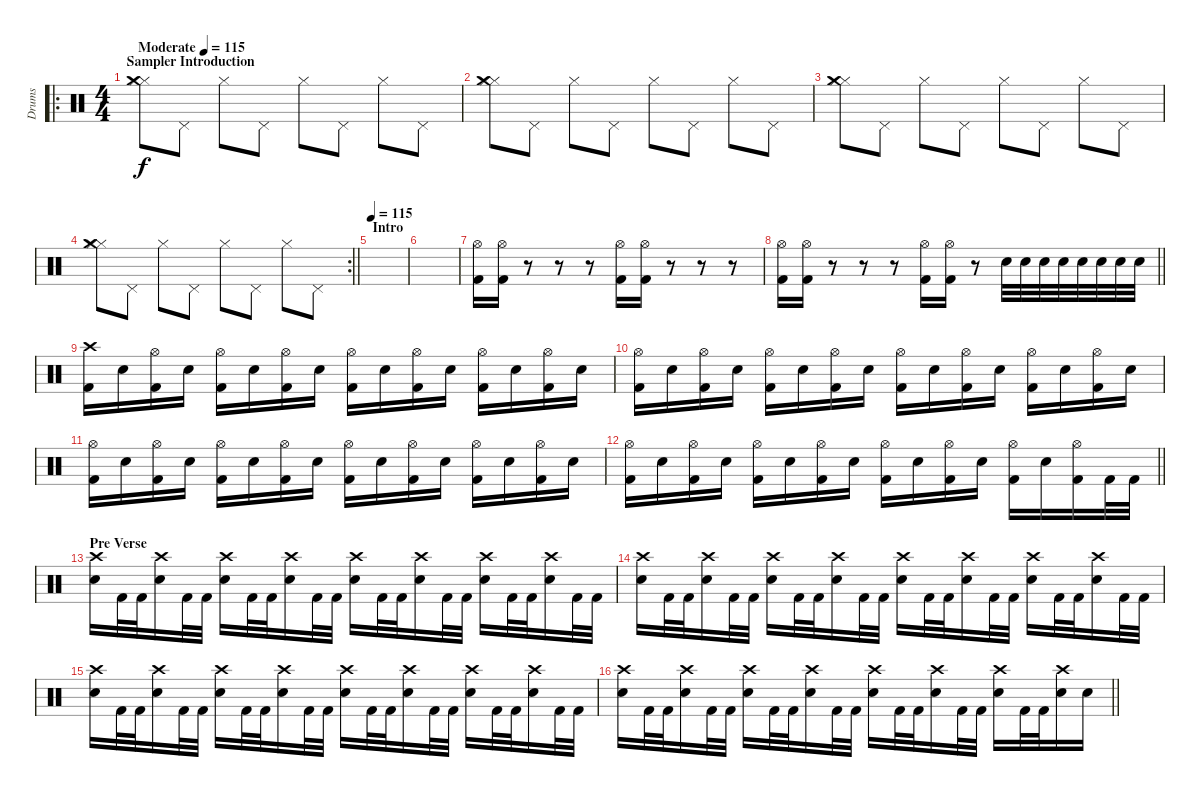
\track ("Drums" "Drums") {instrument percussion}
\staff {score}
\articulation defaults
\ro
\ts (4 4)
\section ("" "Sampler Introduction")
\tempo (115 "Moderate")
\tempo 102
\tempo (115 "Moderate")
\clef neutral
\ks c
("Hi-Hat (closed)" "Crash medium (hit)" "Hi-Hat (closed)").8{dy f} "Pedal Hi-Hat (hit)".8 "Hi-Hat (closed)".8 "Pedal Hi-Hat (hit)".8 "Hi-Hat (closed)".8 "Pedal Hi-Hat (hit)".8 "Hi-Hat (closed)".8 "Pedal Hi-Hat (hit)".8 |
("Hi-Hat (closed)" "Crash medium (hit)" "Hi-Hat (closed)").8 "Pedal Hi-Hat (hit)".8 "Hi-Hat (closed)".8 "Pedal Hi-Hat (hit)".8 "Hi-Hat (closed)".8 "Pedal Hi-Hat (hit)".8 "Hi-Hat (closed)".8 "Pedal Hi-Hat (hit)".8 |
("Hi-Hat (closed)" "Crash medium (hit)" "Hi-Hat (closed)").8 "Pedal Hi-Hat (hit)".8 "Hi-Hat (closed)".8 "Pedal Hi-Hat (hit)".8 "Hi-Hat (closed)".8 "Pedal Hi-Hat (hit)".8 "Hi-Hat (closed)".8 "Pedal Hi-Hat (hit)".8 |
\rc 2
\barLineRight lightlight
("Hi-Hat (closed)" "Crash medium (hit)" "Hi-Hat (closed)").8 "Pedal Hi-Hat (hit)".8 "Hi-Hat (closed)".8 "Pedal Hi-Hat (hit)".8 "Hi-Hat (closed)".8 "Pedal Hi-Hat (hit)".8 "Hi-Hat (closed)".8 "Pedal Hi-Hat (hit)".8 |
\section ("" "Intro")
\tempo 115
|
|
("Hi-Hat (open)" "Kick (hit) 2").16 ("Hi-Hat (open)" "Kick (hit) 2").16 r.8 r.8 r.8 ("Hi-Hat (open)" "Kick (hit) 2").16 ("Hi-Hat (open)" "Kick (hit) 2").16 r.8 r.8 r.8 |
\barLineRight lightlight
("Hi-Hat (open)" "Kick (hit) 2").16 ("Hi-Hat (open)" "Kick (hit) 2").16 r.8 r.8 r.8 ("Hi-Hat (open)" "Kick (hit) 2").16 ("Hi-Hat (open)" "Kick (hit) 2").16 r.8 "Electric Snare (hit)".32 "Electric Snare (hit)".32 "Electric Snare (hit)".32 "Electric Snare (hit)".32 "Electric Snare (hit)".32 "Electric Snare (hit)".32 "Electric Snare (hit)".32 "Electric Snare (hit)".32 |
\section ("" "")
("Crash high (hit)" "Kick (hit) 2").16 "Electric Snare (hit)".16 ("Hi-Hat (open)" "Kick (hit) 2").16 "Electric Snare (hit)".16 ("Hi-Hat (open)" "Kick (hit) 2").16 "Electric Snare (hit)".16 ("Hi-Hat (open)" "Kick (hit) 2").16 "Electric Snare (hit)".16 ("Hi-Hat (open)" "Kick (hit) 2").16 "Electric Snare (hit)".16 ("Hi-Hat (open)" "Kick (hit) 2").16 "Electric Snare (hit)".16 ("Hi-Hat (open)" "Kick (hit) 2").16 "Electric Snare (hit)".16 ("Hi-Hat (open)" "Kick (hit) 2").16 "Electric Snare (hit)".16 |
("Hi-Hat (open)" "Kick (hit) 2").16 "Electric Snare (hit)".16 ("Hi-Hat (open)" "Kick (hit) 2").16 "Electric Snare (hit)".16 ("Hi-Hat (open)" "Kick (hit) 2").16 "Electric Snare (hit)".16 ("Hi-Hat (open)" "Kick (hit) 2").16 "Electric Snare (hit)".16 ("Hi-Hat (open)" "Kick (hit) 2").16 "Electric Snare (hit)".16 ("Hi-Hat (open)" "Kick (hit) 2").16 "Electric Snare (hit)".16 ("Hi-Hat (open)" "Kick (hit) 2").16 "Electric Snare (hit)".16 ("Hi-Hat (open)" "Kick (hit) 2").16 "Electric Snare (hit)".16 |
("Hi-Hat (open)" "Kick (hit) 2").16 "Electric Snare (hit)".16 ("Hi-Hat (open)" "Kick (hit) 2").16 "Electric Snare (hit)".16 ("Hi-Hat (open)" "Kick (hit) 2").16 "Electric Snare (hit)".16 ("Hi-Hat (open)" "Kick (hit) 2").16 "Electric Snare (hit)".16 ("Hi-Hat (open)" "Kick (hit) 2").16 "Electric Snare (hit)".16 ("Hi-Hat (open)" "Kick (hit) 2").16 "Electric Snare (hit)".16 ("Hi-Hat (open)" "Kick (hit) 2").16 "Electric Snare (hit)".16 ("Hi-Hat (open)" "Kick (hit) 2").16 "Electric Snare (hit)".16 |
\barLineRight lightlight
("Hi-Hat (open)" "Kick (hit) 2").16 "Electric Snare (hit)".16 ("Hi-Hat (open)" "Kick (hit) 2").16 "Electric Snare (hit)".16 ("Hi-Hat (open)" "Kick (hit) 2").16 "Electric Snare (hit)".16 ("Hi-Hat (open)" "Kick (hit) 2").16 "Electric Snare (hit)".16 ("Hi-Hat (open)" "Kick (hit) 2").16 "Electric Snare (hit)".16 ("Hi-Hat (open)" "Kick (hit) 2").16 "Electric Snare (hit)".16 ("Hi-Hat (open)" "Kick (hit) 2").16 "Electric Snare (hit)".16 ("Hi-Hat (open)" "Kick (hit) 2").16 "Kick (hit) 2".32 "Kick (hit) 2".32 |
\section ("" "Pre Verse")
("Crash high (hit)" "Electric Snare (hit)").16 "Kick (hit) 2".32 "Kick (hit) 2".32 ("Crash high (hit)" "Electric Snare (hit)").16 "Kick (hit) 2".32 "Kick (hit) 2".32 ("Crash high (hit)" "Electric Snare (hit)").16 "Kick (hit) 2".32 "Kick (hit) 2".32 ("Crash high (hit)" "Electric Snare (hit)").16 "Kick (hit) 2".32 "Kick (hit) 2".32 ("Crash high (hit)" "Electric Snare (hit)").16 "Kick (hit) 2".32 "Kick (hit) 2".32 ("Crash high (hit)" "Electric Snare (hit)").16 "Kick (hit) 2".32 "Kick (hit) 2".32 ("Crash high (hit)" "Electric Snare (hit)").16 "Kick (hit) 2".32 "Kick (hit) 2".32 ("Crash high (hit)" "Electric Snare (hit)").16 "Kick (hit) 2".32 "Kick (hit) 2".32 |
("Crash high (hit)" "Electric Snare (hit)").16 "Kick (hit) 2".32 "Kick (hit) 2".32 ("Crash high (hit)" "Electric Snare (hit)").16 "Kick (hit) 2".32 "Kick (hit) 2".32 ("Crash high (hit)" "Electric Snare (hit)").16 "Kick (hit) 2".32 "Kick (hit) 2".32 ("Crash high (hit)" "Electric Snare (hit)").16 "Kick (hit) 2".32 "Kick (hit) 2".32 ("Crash high (hit)" "Electric Snare (hit)").16 "Kick (hit) 2".32 "Kick (hit) 2".32 ("Crash high (hit)" "Electric Snare (hit)").16 "Kick (hit) 2".32 "Kick (hit) 2".32 ("Crash high (hit)" "Electric Snare (hit)").16 "Kick (hit) 2".32 "Kick (hit) 2".32 ("Crash high (hit)" "Electric Snare (hit)").16 "Kick (hit) 2".32 "Kick (hit) 2".32 |
("Crash high (hit)" "Electric Snare (hit)").16 "Kick (hit) 2".32 "Kick (hit) 2".32 ("Crash high (hit)" "Electric Snare (hit)").16 "Kick (hit) 2".32 "Kick (hit) 2".32 ("Crash high (hit)" "Electric Snare (hit)").16 "Kick (hit) 2".32 "Kick (hit) 2".32 ("Crash high (hit)" "Electric Snare (hit)").16 "Kick (hit) 2".32 "Kick (hit) 2".32 ("Crash high (hit)" "Electric Snare (hit)").16 "Kick (hit) 2".32 "Kick (hit) 2".32 ("Crash high (hit)" "Electric Snare (hit)").16 "Kick (hit) 2".32 "Kick (hit) 2".32 ("Crash high (hit)" "Electric Snare (hit)").16 "Kick (hit) 2".32 "Kick (hit) 2".32 ("Crash high (hit)" "Electric Snare (hit)").16 "Kick (hit) 2".32 "Kick (hit) 2".32 |
\barLineRight lightlight
("Crash high (hit)" "Electric Snare (hit)").16 "Kick (hit) 2".32 "Kick (hit) 2".32 ("Crash high (hit)" "Electric Snare (hit)").16 "Kick (hit) 2".32 "Kick (hit) 2".32 ("Crash high (hit)" "Electric Snare (hit)").16 "Kick (hit) 2".32 "Kick (hit) 2".32 ("Crash high (hit)" "Electric Snare (hit)").16 "Kick (hit) 2".32 "Kick (hit) 2".32 ("Crash high (hit)" "Electric Snare (hit)").16 "Kick (hit) 2".32 "Kick (hit) 2".32 ("Crash high (hit)" "Electric Snare (hit)").16 "Kick (hit) 2".32 "Kick (hit) 2".32 ("Crash high (hit)" "Electric Snare (hit)").16 "Kick (hit) 2".32 "Kick (hit) 2".32 ("Crash high (hit)" "Electric Snare (hit)").16 "Electric Snare (hit)".16
